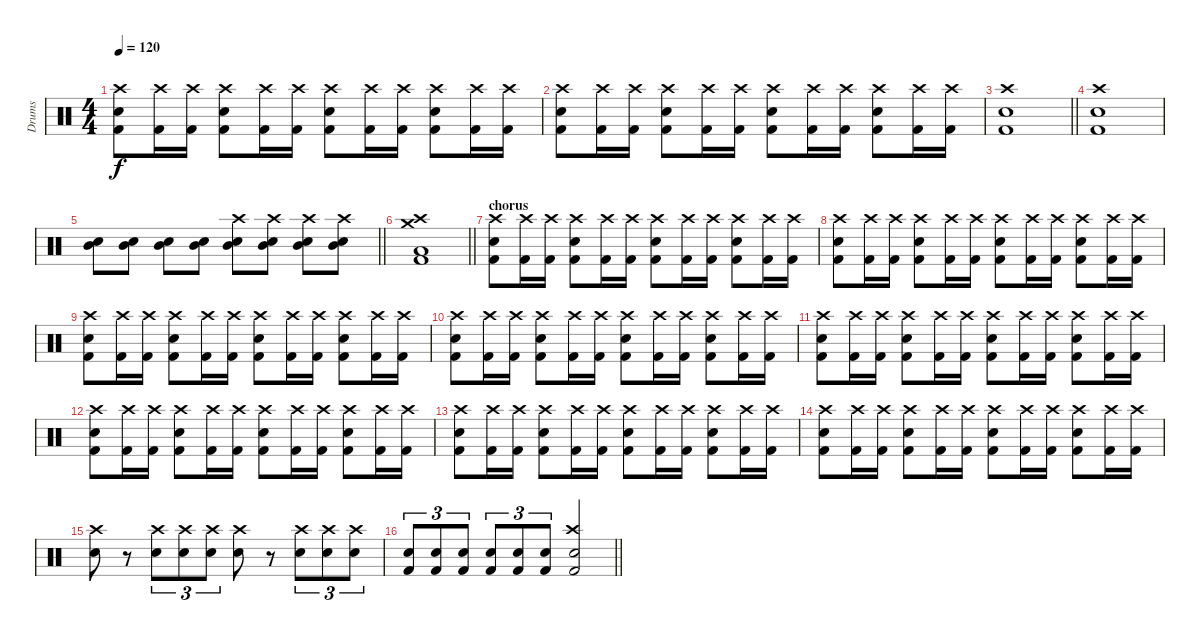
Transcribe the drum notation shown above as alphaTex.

\track ("Drums" "Drums") {instrument percussion}
\staff {score}
\articulation defaults
\ts (4 4)
\tempo 120
\clef neutral
\ks c
("Electric Snare (hit)" "Crash high (hit)" "Kick (hit) 2").8{dy f} ("Crash high (hit)" "Kick (hit) 2").16 ("Crash high (hit)" "Kick (hit) 2").16 ("Electric Snare (hit)" "Crash high (hit)" "Kick (hit) 2").8 ("Crash high (hit)" "Kick (hit) 2").16 ("Crash high (hit)" "Kick (hit) 2").16 ("Electric Snare (hit)" "Crash high (hit)" "Kick (hit) 2").8 ("Crash high (hit)" "Kick (hit) 2").16 ("Crash high (hit)" "Kick (hit) 2").16 ("Electric Snare (hit)" "Crash high (hit)" "Kick (hit) 2").8 ("Crash high (hit)" "Kick (hit) 2").16 ("Crash high (hit)" "Kick (hit) 2").16 |
("Electric Snare (hit)" "Crash high (hit)" "Kick (hit) 2").8 ("Crash high (hit)" "Kick (hit) 2").16 ("Crash high (hit)" "Kick (hit) 2").16 ("Electric Snare (hit)" "Crash high (hit)" "Kick (hit) 2").8 ("Crash high (hit)" "Kick (hit) 2").16 ("Crash high (hit)" "Kick (hit) 2").16 ("Electric Snare (hit)" "Crash high (hit)" "Kick (hit) 2").8 ("Crash high (hit)" "Kick (hit) 2").16 ("Crash high (hit)" "Kick (hit) 2").16 ("Electric Snare (hit)" "Crash high (hit)" "Kick (hit) 2").8 ("Crash high (hit)" "Kick (hit) 2").16 ("Crash high (hit)" "Kick (hit) 2").16 |
\barLineRight lightlight
("Crash high (hit)" "Kick (hit) 2" "Electric Snare (hit)").1 |
("Crash high (hit)" "Kick (hit) 2" "Electric Snare (hit)").1 |
\barLineRight lightlight
("Mid Tom (hit)" "Electric Snare (hit)").8 ("Mid Tom (hit)" "Electric Snare (hit)").8 ("Mid Tom (hit)" "Electric Snare (hit)").8 ("Mid Tom (hit)" "Electric Snare (hit)").8 ("Mid Tom (hit)" "Crash high (hit)" "Electric Snare (hit)").8 ("Mid Tom (hit)" "Crash high (hit)" "Electric Snare (hit)").8 ("Mid Tom (hit)" "Crash high (hit)" "Electric Snare (hit)").8 ("Mid Tom (hit)" "Crash high (hit)" "Electric Snare (hit)").8 |
\barLineRight lightlight
("Low Tom (hit)" "Kick (hit) 2" "Crash medium (hit)" "Crash high (hit)").1 |
\section ("" "chorus")
("Electric Snare (hit)" "Crash high (hit)" "Kick (hit) 2").8 ("Crash high (hit)" "Kick (hit) 2").16 ("Crash high (hit)" "Kick (hit) 2").16 ("Electric Snare (hit)" "Crash high (hit)" "Kick (hit) 2").8 ("Crash high (hit)" "Kick (hit) 2").16 ("Crash high (hit)" "Kick (hit) 2").16 ("Electric Snare (hit)" "Crash high (hit)" "Kick (hit) 2").8 ("Crash high (hit)" "Kick (hit) 2").16 ("Crash high (hit)" "Kick (hit) 2").16 ("Electric Snare (hit)" "Crash high (hit)" "Kick (hit) 2").8 ("Crash high (hit)" "Kick (hit) 2").16 ("Crash high (hit)" "Kick (hit) 2").16 |
("Electric Snare (hit)" "Crash high (hit)" "Kick (hit) 2").8 ("Crash high (hit)" "Kick (hit) 2").16 ("Crash high (hit)" "Kick (hit) 2").16 ("Electric Snare (hit)" "Crash high (hit)" "Kick (hit) 2").8 ("Crash high (hit)" "Kick (hit) 2").16 ("Crash high (hit)" "Kick (hit) 2").16 ("Electric Snare (hit)" "Crash high (hit)" "Kick (hit) 2").8 ("Crash high (hit)" "Kick (hit) 2").16 ("Crash high (hit)" "Kick (hit) 2").16 ("Electric Snare (hit)" "Crash high (hit)" "Kick (hit) 2").8 ("Crash high (hit)" "Kick (hit) 2").16 ("Crash high (hit)" "Kick (hit) 2").16 |
("Electric Snare (hit)" "Crash high (hit)" "Kick (hit) 2").8 ("Crash high (hit)" "Kick (hit) 2").16 ("Crash high (hit)" "Kick (hit) 2").16 ("Electric Snare (hit)" "Crash high (hit)" "Kick (hit) 2").8 ("Crash high (hit)" "Kick (hit) 2").16 ("Crash high (hit)" "Kick (hit) 2").16 ("Electric Snare (hit)" "Crash high (hit)" "Kick (hit) 2").8 ("Crash high (hit)" "Kick (hit) 2").16 ("Crash high (hit)" "Kick (hit) 2").16 ("Electric Snare (hit)" "Crash high (hit)" "Kick (hit) 2").8 ("Crash high (hit)" "Kick (hit) 2").16 ("Crash high (hit)" "Kick (hit) 2").16 |
("Electric Snare (hit)" "Crash high (hit)" "Kick (hit) 2").8 ("Crash high (hit)" "Kick (hit) 2").16 ("Crash high (hit)" "Kick (hit) 2").16 ("Electric Snare (hit)" "Crash high (hit)" "Kick (hit) 2").8 ("Crash high (hit)" "Kick (hit) 2").16 ("Crash high (hit)" "Kick (hit) 2").16 ("Electric Snare (hit)" "Crash high (hit)" "Kick (hit) 2").8 ("Crash high (hit)" "Kick (hit) 2").16 ("Crash high (hit)" "Kick (hit) 2").16 ("Electric Snare (hit)" "Crash high (hit)" "Kick (hit) 2").8 ("Crash high (hit)" "Kick (hit) 2").16 ("Crash high (hit)" "Kick (hit) 2").16 |
("Electric Snare (hit)" "Crash high (hit)" "Kick (hit) 2").8 ("Crash high (hit)" "Kick (hit) 2").16 ("Crash high (hit)" "Kick (hit) 2").16 ("Electric Snare (hit)" "Crash high (hit)" "Kick (hit) 2").8 ("Crash high (hit)" "Kick (hit) 2").16 ("Crash high (hit)" "Kick (hit) 2").16 ("Electric Snare (hit)" "Crash high (hit)" "Kick (hit) 2").8 ("Crash high (hit)" "Kick (hit) 2").16 ("Crash high (hit)" "Kick (hit) 2").16 ("Electric Snare (hit)" "Crash high (hit)" "Kick (hit) 2").8 ("Crash high (hit)" "Kick (hit) 2").16 ("Crash high (hit)" "Kick (hit) 2").16 |
("Electric Snare (hit)" "Crash high (hit)" "Kick (hit) 2").8 ("Crash high (hit)" "Kick (hit) 2").16 ("Crash high (hit)" "Kick (hit) 2").16 ("Electric Snare (hit)" "Crash high (hit)" "Kick (hit) 2").8 ("Crash high (hit)" "Kick (hit) 2").16 ("Crash high (hit)" "Kick (hit) 2").16 ("Electric Snare (hit)" "Crash high (hit)" "Kick (hit) 2").8 ("Crash high (hit)" "Kick (hit) 2").16 ("Crash high (hit)" "Kick (hit) 2").16 ("Electric Snare (hit)" "Crash high (hit)" "Kick (hit) 2").8 ("Crash high (hit)" "Kick (hit) 2").16 ("Crash high (hit)" "Kick (hit) 2").16 |
("Electric Snare (hit)" "Crash high (hit)" "Kick (hit) 2").8 ("Crash high (hit)" "Kick (hit) 2").16 ("Crash high (hit)" "Kick (hit) 2").16 ("Electric Snare (hit)" "Crash high (hit)" "Kick (hit) 2").8 ("Crash high (hit)" "Kick (hit) 2").16 ("Crash high (hit)" "Kick (hit) 2").16 ("Electric Snare (hit)" "Crash high (hit)" "Kick (hit) 2").8 ("Crash high (hit)" "Kick (hit) 2").16 ("Crash high (hit)" "Kick (hit) 2").16 ("Electric Snare (hit)" "Crash high (hit)" "Kick (hit) 2").8 ("Crash high (hit)" "Kick (hit) 2").16 ("Crash high (hit)" "Kick (hit) 2").16 |
("Electric Snare (hit)" "Crash high (hit)" "Kick (hit) 2").8 ("Crash high (hit)" "Kick (hit) 2").16 ("Crash high (hit)" "Kick (hit) 2").16 ("Electric Snare (hit)" "Crash high (hit)" "Kick (hit) 2").8 ("Crash high (hit)" "Kick (hit) 2").16 ("Crash high (hit)" "Kick (hit) 2").16 ("Electric Snare (hit)" "Crash high (hit)" "Kick (hit) 2").8 ("Crash high (hit)" "Kick (hit) 2").16 ("Crash high (hit)" "Kick (hit) 2").16 ("Electric Snare (hit)" "Crash high (hit)" "Kick (hit) 2").8 ("Crash high (hit)" "Kick (hit) 2").16 ("Crash high (hit)" "Kick (hit) 2").16 |
("Electric Snare (hit)" "Crash high (hit)").8 r.8 ("Electric Snare (hit)" "Crash high (hit)").8{tu (3 2)} ("Electric Snare (hit)" "Crash high (hit)").8{tu (3 2)} ("Electric Snare (hit)" "Crash high (hit)").8{tu (3 2)} ("Electric Snare (hit)" "Crash high (hit)").8 r.8 ("Electric Snare (hit)" "Crash high (hit)").8{tu (3 2)} ("Electric Snare (hit)" "Crash high (hit)").8{tu (3 2)} ("Electric Snare (hit)" "Crash high (hit)").8{tu (3 2)} |
\barLineRight lightlight
("Electric Snare (hit)" "Kick (hit) 2").8{tu (3 2)} ("Electric Snare (hit)" "Kick (hit) 2").8{tu (3 2)} ("Electric Snare (hit)" "Kick (hit) 2").8{tu (3 2)} ("Electric Snare (hit)" "Kick (hit) 2").8{tu (3 2)} ("Electric Snare (hit)" "Kick (hit) 2").8{tu (3 2)} ("Electric Snare (hit)" "Kick (hit) 2").8{tu (3 2)} ("Electric Snare (hit)" "Crash high (hit)" "Kick (hit) 2").2
